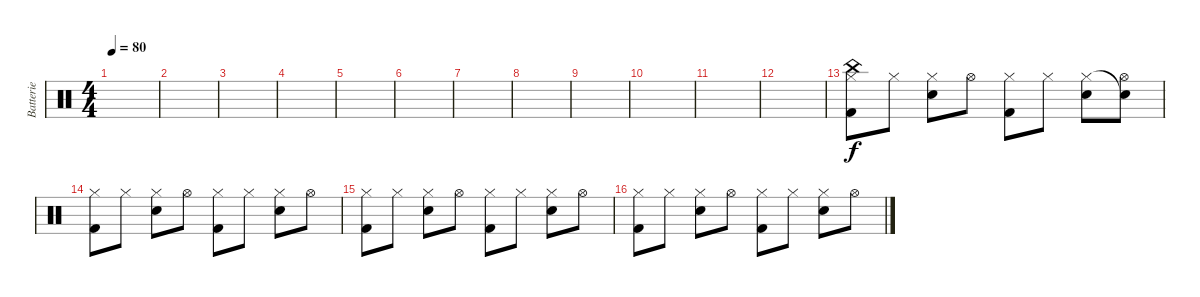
\track ("Batterie" "Batterie") {instrument percussion}
\staff {score}
\articulation defaults
\ts (4 4)
\tempo 80
\clef neutral
\ks c
|
|
|
|
|
|
|
|
|
|
|
|
("China (hit)" "Hi-Hat (closed)" "Kick (hit) 2").8 "Hi-Hat (closed)".8 ("Hi-Hat (closed)" "Snare (hit) 2").8 "Hi-Hat (open)".8 ("Hi-Hat (closed)" "Kick (hit) 2").8 "Hi-Hat (closed)".8 ("Hi-Hat (closed)" "Snare (hit) 2").8 ("Snare (hit)"{t} "Hi-Hat (open)").8 |
("Hi-Hat (closed)" "Kick (hit) 2").8 "Hi-Hat (closed)".8 ("Hi-Hat (closed)" "Snare (hit) 2").8 "Hi-Hat (open)".8 ("Hi-Hat (closed)" "Kick (hit) 2").8 "Hi-Hat (closed)".8 ("Hi-Hat (closed)" "Snare (hit) 2").8 "Hi-Hat (open)".8 |
("Hi-Hat (closed)" "Kick (hit) 2").8 "Hi-Hat (closed)".8 ("Hi-Hat (closed)" "Snare (hit) 2").8 "Hi-Hat (open)".8 ("Hi-Hat (closed)" "Kick (hit) 2").8 "Hi-Hat (closed)".8 ("Hi-Hat (closed)" "Snare (hit) 2").8 "Hi-Hat (open)".8 |
("Hi-Hat (closed)" "Kick (hit) 2").8 "Hi-Hat (closed)".8 ("Hi-Hat (closed)" "Snare (hit) 2").8 "Hi-Hat (open)".8 ("Hi-Hat (closed)" "Kick (hit) 2").8 "Hi-Hat (closed)".8 ("Hi-Hat (closed)" "Snare (hit) 2").8 "Hi-Hat (open)".8
